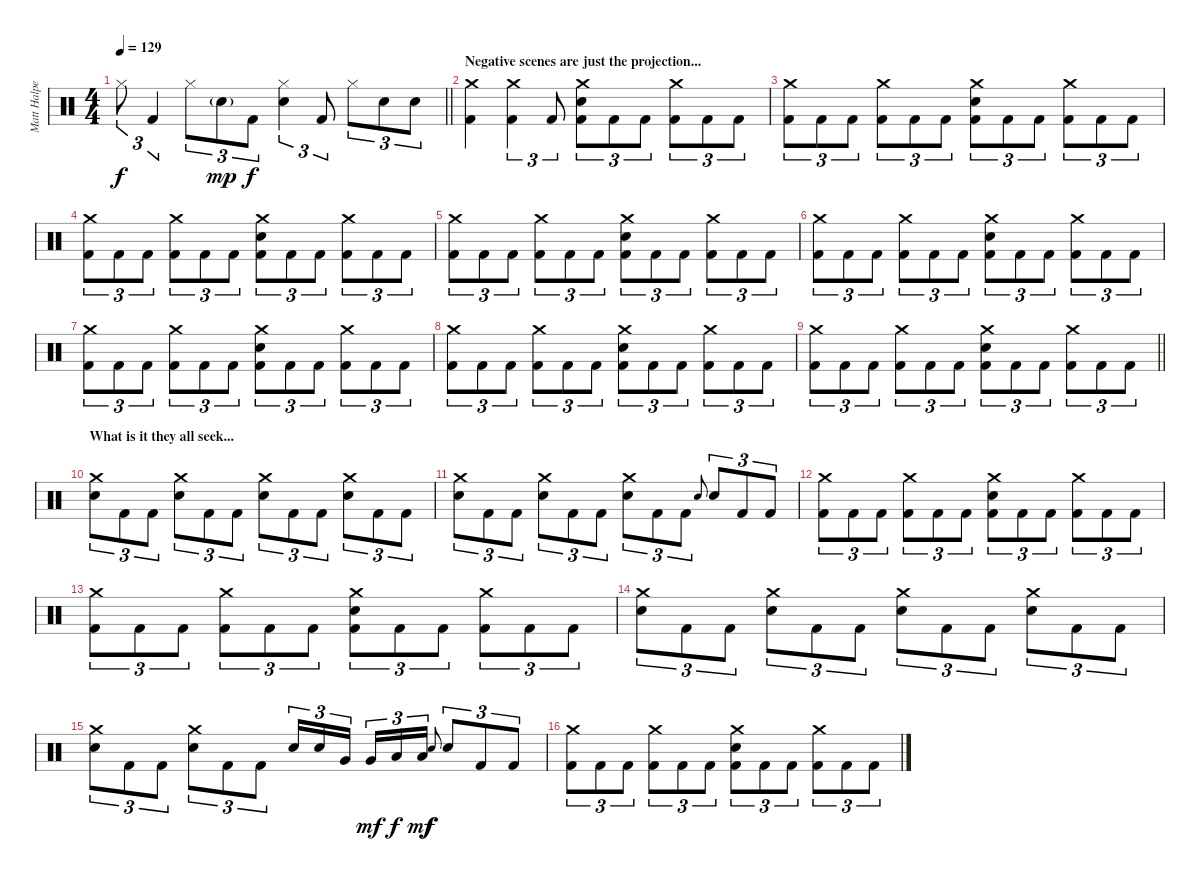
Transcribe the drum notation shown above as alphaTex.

\track ("Matt Halpern - Drums" "Matt Halpe") {instrument percussion}
\staff {score}
\articulation defaults
\ts (4 4)
\tempo 129
\clef neutral
\barLineRight lightlight
\ks c "Hi-Hat (closed)".8{tu (3 2) dy f} "Kick (hit) 2".4{tu (3 2)} "Hi-Hat (closed)".8{tu (3 2)} "Electric Snare (hit)"{g}.8{tu (3 2) dy mp} "Kick (hit) 2".8{tu (3 2) dy f}
("Hi-Hat (closed)" "Electric Snare (hit)").4{tu (3 2)} "Kick (hit) 2".8{tu (3 2)} "Hi-Hat (closed)".8{tu (3 2)} "Electric Snare (hit)".8{tu (3 2)} "Electric Snare (hit)".8{tu (3 2)} |
\section ("" "Negative scenes are just the projection...")
("Crash medium (hit)" "Kick (hit) 2").4 ("Crash medium (hit)" "Kick (hit) 2").4{tu (3 2)} "Kick (hit) 2".8{tu (3 2)} ("Crash medium (hit)" "Electric Snare (hit)" "Kick (hit) 2").8{tu (3 2)} "Kick (hit) 2".8{tu (3 2)} "Kick (hit) 2".8{tu (3 2)} ("Crash medium (hit)" "Kick (hit) 2").8{tu (3 2)} "Kick (hit) 2".8{tu (3 2)} "Kick (hit) 2".8{tu (3 2)} |
("Crash medium (hit)" "Kick (hit) 2").8{tu (3 2)} "Kick (hit) 2".8{tu (3 2)} "Kick (hit) 2".8{tu (3 2)} ("Crash medium (hit)" "Kick (hit) 2").8{tu (3 2)} "Kick (hit) 2".8{tu (3 2)} "Kick (hit) 2".8{tu (3 2)} ("Crash medium (hit)" "Electric Snare (hit)" "Kick (hit) 2").8{tu (3 2)} "Kick (hit) 2".8{tu (3 2)} "Kick (hit) 2".8{tu (3 2)} ("Crash medium (hit)" "Kick (hit) 2").8{tu (3 2)} "Kick (hit) 2".8{tu (3 2)} "Kick (hit) 2".8{tu (3 2)} |
("Crash medium (hit)" "Kick (hit) 2").8{tu (3 2)} "Kick (hit) 2".8{tu (3 2)} "Kick (hit) 2".8{tu (3 2)} ("Crash medium (hit)" "Kick (hit) 2").8{tu (3 2)} "Kick (hit) 2".8{tu (3 2)} "Kick (hit) 2".8{tu (3 2)} ("Crash medium (hit)" "Electric Snare (hit)" "Kick (hit) 2").8{tu (3 2)} "Kick (hit) 2".8{tu (3 2)} "Kick (hit) 2".8{tu (3 2)} ("Crash medium (hit)" "Kick (hit) 2").8{tu (3 2)} "Kick (hit) 2".8{tu (3 2)} "Kick (hit) 2".8{tu (3 2)} |
("Crash medium (hit)" "Kick (hit) 2").8{tu (3 2)} "Kick (hit) 2".8{tu (3 2)} "Kick (hit) 2".8{tu (3 2)} ("Crash medium (hit)" "Kick (hit) 2").8{tu (3 2)} "Kick (hit) 2".8{tu (3 2)} "Kick (hit) 2".8{tu (3 2)} ("Crash medium (hit)" "Electric Snare (hit)" "Kick (hit) 2").8{tu (3 2)} "Kick (hit) 2".8{tu (3 2)} "Kick (hit) 2".8{tu (3 2)} ("Crash medium (hit)" "Kick (hit) 2").8{tu (3 2)} "Kick (hit) 2".8{tu (3 2)} "Kick (hit) 2".8{tu (3 2)} |
("Crash medium (hit)" "Kick (hit) 2").8{tu (3 2)} "Kick (hit) 2".8{tu (3 2)} "Kick (hit) 2".8{tu (3 2)} ("Crash medium (hit)" "Kick (hit) 2").8{tu (3 2)} "Kick (hit) 2".8{tu (3 2)} "Kick (hit) 2".8{tu (3 2)} ("Crash medium (hit)" "Electric Snare (hit)" "Kick (hit) 2").8{tu (3 2)} "Kick (hit) 2".8{tu (3 2)} "Kick (hit) 2".8{tu (3 2)} ("Crash medium (hit)" "Kick (hit) 2").8{tu (3 2)} "Kick (hit) 2".8{tu (3 2)} "Kick (hit) 2".8{tu (3 2)} |
("Crash medium (hit)" "Kick (hit) 2").8{tu (3 2)} "Kick (hit) 2".8{tu (3 2)} "Kick (hit) 2".8{tu (3 2)} ("Crash medium (hit)" "Kick (hit) 2").8{tu (3 2)} "Kick (hit) 2".8{tu (3 2)} "Kick (hit) 2".8{tu (3 2)} ("Crash medium (hit)" "Electric Snare (hit)" "Kick (hit) 2").8{tu (3 2)} "Kick (hit) 2".8{tu (3 2)} "Kick (hit) 2".8{tu (3 2)} ("Crash medium (hit)" "Kick (hit) 2").8{tu (3 2)} "Kick (hit) 2".8{tu (3 2)} "Kick (hit) 2".8{tu (3 2)} |
("Crash medium (hit)" "Kick (hit) 2").8{tu (3 2)} "Kick (hit) 2".8{tu (3 2)} "Kick (hit) 2".8{tu (3 2)} ("Crash medium (hit)" "Kick (hit) 2").8{tu (3 2)} "Kick (hit) 2".8{tu (3 2)} "Kick (hit) 2".8{tu (3 2)} ("Crash medium (hit)" "Electric Snare (hit)" "Kick (hit) 2").8{tu (3 2)} "Kick (hit) 2".8{tu (3 2)} "Kick (hit) 2".8{tu (3 2)} ("Crash medium (hit)" "Kick (hit) 2").8{tu (3 2)} "Kick (hit) 2".8{tu (3 2)} "Kick (hit) 2".8{tu (3 2)} |
\barLineRight lightlight
("Crash medium (hit)" "Kick (hit) 2").8{tu (3 2)} "Kick (hit) 2".8{tu (3 2)} "Kick (hit) 2".8{tu (3 2)} ("Crash medium (hit)" "Kick (hit) 2").8{tu (3 2)} "Kick (hit) 2".8{tu (3 2)} "Kick (hit) 2".8{tu (3 2)} ("Crash medium (hit)" "Electric Snare (hit)" "Kick (hit) 2").8{tu (3 2)} "Kick (hit) 2".8{tu (3 2)} "Kick (hit) 2".8{tu (3 2)} ("Crash medium (hit)" "Kick (hit) 2").8{tu (3 2)} "Kick (hit) 2".8{tu (3 2)} "Kick (hit) 2".8{tu (3 2)} |
\section ("" "What is it they all seek...")
("Crash medium (hit)" "Electric Snare (hit)").8{tu (3 2)} "Kick (hit) 2".8{tu (3 2)} "Kick (hit) 2".8{tu (3 2)} ("Crash medium (hit)" "Electric Snare (hit)").8{tu (3 2)} "Kick (hit) 2".8{tu (3 2)} "Kick (hit) 2".8{tu (3 2)} ("Crash medium (hit)" "Electric Snare (hit)").8{tu (3 2)} "Kick (hit) 2".8{tu (3 2)} "Kick (hit) 2".8{tu (3 2)} ("Crash medium (hit)" "Electric Snare (hit)").8{tu (3 2)} "Kick (hit) 2".8{tu (3 2)} "Kick (hit) 2".8{tu (3 2)} |
("Crash medium (hit)" "Electric Snare (hit)").8{tu (3 2)} "Kick (hit) 2".8{tu (3 2)} "Kick (hit) 2".8{tu (3 2)} ("Crash medium (hit)" "Electric Snare (hit)").8{tu (3 2)} "Kick (hit) 2".8{tu (3 2)} "Kick (hit) 2".8{tu (3 2)} ("Crash medium (hit)" "Electric Snare (hit)").8{tu (3 2)} "Kick (hit) 2".8{tu (3 2)} "Kick (hit) 2".8{tu (3 2)} "Electric Snare (hit)".8{gr onbeat} "Electric Snare (hit)".8{tu (3 2)} "Kick (hit) 2".8{tu (3 2)} "Kick (hit) 2".8{tu (3 2)} |
("Crash medium (hit)" "Kick (hit) 2").8{tu (3 2)} "Kick (hit) 2".8{tu (3 2)} "Kick (hit) 2".8{tu (3 2)} ("Crash medium (hit)" "Kick (hit) 2").8{tu (3 2)} "Kick (hit) 2".8{tu (3 2)} "Kick (hit) 2".8{tu (3 2)} ("Crash medium (hit)" "Electric Snare (hit)" "Kick (hit) 2").8{tu (3 2)} "Kick (hit) 2".8{tu (3 2)} "Kick (hit) 2".8{tu (3 2)} ("Crash medium (hit)" "Kick (hit) 2").8{tu (3 2)} "Kick (hit) 2".8{tu (3 2)} "Kick (hit) 2".8{tu (3 2)} |
("Crash medium (hit)" "Kick (hit) 2").8{tu (3 2)} "Kick (hit) 2".8{tu (3 2)} "Kick (hit) 2".8{tu (3 2)} ("Crash medium (hit)" "Kick (hit) 2").8{tu (3 2)} "Kick (hit) 2".8{tu (3 2)} "Kick (hit) 2".8{tu (3 2)} ("Crash medium (hit)" "Electric Snare (hit)" "Kick (hit) 2").8{tu (3 2)} "Kick (hit) 2".8{tu (3 2)} "Kick (hit) 2".8{tu (3 2)} ("Crash medium (hit)" "Kick (hit) 2").8{tu (3 2)} "Kick (hit) 2".8{tu (3 2)} "Kick (hit) 2".8{tu (3 2)} |
("Crash medium (hit)" "Electric Snare (hit)").8{tu (3 2)} "Kick (hit) 2".8{tu (3 2)} "Kick (hit) 2".8{tu (3 2)} ("Crash medium (hit)" "Electric Snare (hit)").8{tu (3 2)} "Kick (hit) 2".8{tu (3 2)} "Kick (hit) 2".8{tu (3 2)} ("Crash medium (hit)" "Electric Snare (hit)").8{tu (3 2)} "Kick (hit) 2".8{tu (3 2)} "Kick (hit) 2".8{tu (3 2)} ("Crash medium (hit)" "Electric Snare (hit)").8{tu (3 2)} "Kick (hit) 2".8{tu (3 2)} "Kick (hit) 2".8{tu (3 2)} |
("Crash medium (hit)" "Electric Snare (hit)").8{tu (3 2)} "Kick (hit) 2".8{tu (3 2)} "Kick (hit) 2".8{tu (3 2)} ("Crash medium (hit)" "Electric Snare (hit)").8{tu (3 2)} "Kick (hit) 2".8{tu (3 2)} "Kick (hit) 2".8{tu (3 2)} "Electric Snare (hit)".16{tu (3 2)} "Electric Snare (hit)".16{tu (3 2)} "Very Low Tom (hit)".16{tu (3 2) beam splitsecondary} "Very Low Tom (hit)".16{tu (3 2) dy mf} "Low Floor Tom (hit)".16{tu (3 2) dy f} "Low Floor Tom (hit)".16{tu (3 2) dy mf} "Electric Snare (hit)".8{gr onbeat dy f} "Electric Snare (hit)".8{tu (3 2)} "Kick (hit) 2".8{tu (3 2)} "Kick (hit) 2".8{tu (3 2)} |
("Crash medium (hit)" "Kick (hit) 2").8{tu (3 2)} "Kick (hit) 2".8{tu (3 2)} "Kick (hit) 2".8{tu (3 2)} ("Crash medium (hit)" "Kick (hit) 2").8{tu (3 2)} "Kick (hit) 2".8{tu (3 2)} "Kick (hit) 2".8{tu (3 2)} ("Crash medium (hit)" "Electric Snare (hit)" "Kick (hit) 2").8{tu (3 2)} "Kick (hit) 2".8{tu (3 2)} "Kick (hit) 2".8{tu (3 2)} ("Crash medium (hit)" "Kick (hit) 2").8{tu (3 2)} "Kick (hit) 2".8{tu (3 2)} "Kick (hit) 2".8{tu (3 2)}
